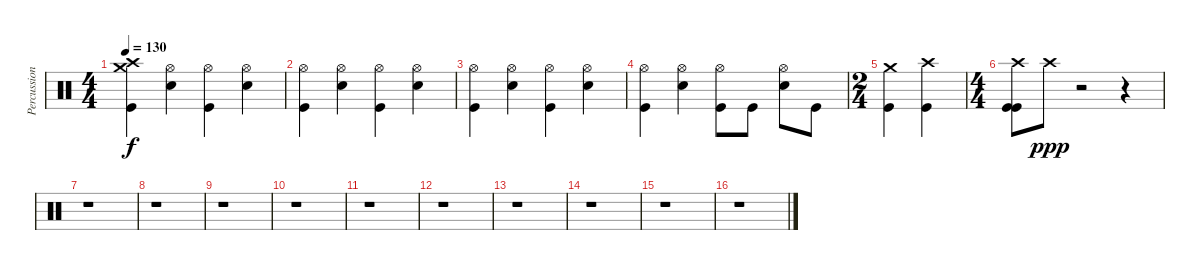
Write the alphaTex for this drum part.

\track ("Percussions" "Percussion") {instrument percussion}
\staff {score}
\articulation defaults
\ts (4 4)
\tempo 130
\clef neutral
\ks c
("Crash medium (hit)" "Crash high (hit)" "Kick (hit)").4{dy f} ("Hi-Hat (open)" "Electric Snare (hit)").4 ("Hi-Hat (open)" "Kick (hit)").4 ("Hi-Hat (open)" "Electric Snare (hit)").4 |
("Hi-Hat (open)" "Kick (hit)").4 ("Hi-Hat (open)" "Electric Snare (hit)").4 ("Hi-Hat (open)" "Kick (hit)").4 ("Hi-Hat (open)" "Electric Snare (hit)").4 |
("Hi-Hat (open)" "Kick (hit)").4 ("Hi-Hat (open)" "Electric Snare (hit)").4 ("Hi-Hat (open)" "Kick (hit)").4 ("Hi-Hat (open)" "Electric Snare (hit)").4 |
("Hi-Hat (open)" "Kick (hit)").4 ("Hi-Hat (open)" "Electric Snare (hit)").4 ("Hi-Hat (open)" "Kick (hit)").8 "Kick (hit)".8 ("Hi-Hat (open)" "Electric Snare (hit)").8 "Kick (hit)".8 |
\ts (2 4)
("Crash medium (hit)" "Kick (hit)").4 ("Crash high (hit)" "Kick (hit)").4 |
\ts (4 4)
("Crash high (hit)" "Kick (hit)" "Kick (hit)").8 "Crash high (hit)".8{dy ppp} r.2 r.4 |
r.1 |
r.1 |
r.1 |
r.1 |
r.1 |
r.1 |
r.1 |
r.1 |
r.1 |
r.1
